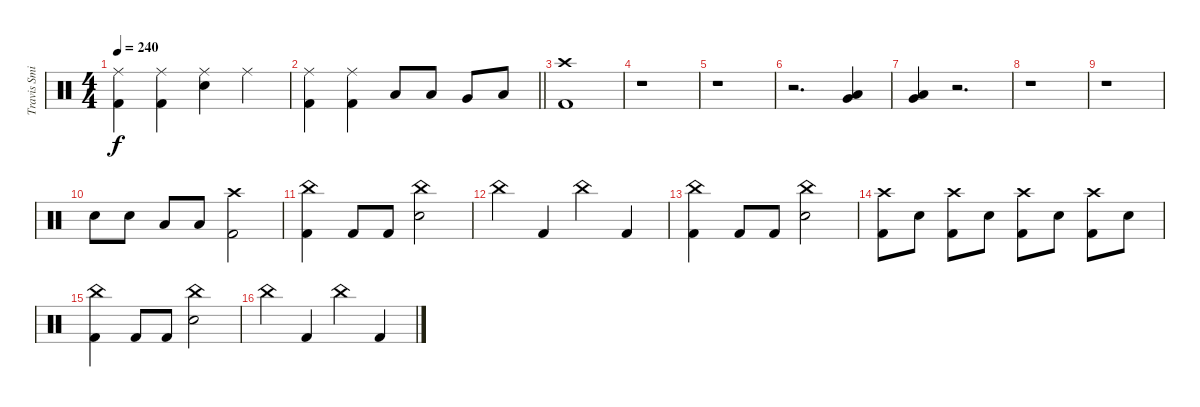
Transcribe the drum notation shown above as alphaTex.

\track ("Travis Smith" "Travis Smi") {instrument percussion}
\staff {score}
\articulation defaults
\ts (4 4)
\tempo 240
\clef neutral
\ks c
("Kick (hit) 2" "Ride (middle)").4{dy f} ("Kick (hit) 2" "Ride (middle)").4 ("Snare (hit) 2" "Ride (middle)").4 "Ride (middle)".4 |
\barLineRight lightlight
("Kick (hit) 2" "Ride (middle)").4 ("Kick (hit) 2" "Ride (middle)").4 "Low Tom (hit)".8 "Low Tom (hit)".8 "Very Low Tom (hit)".8 "Low Floor Tom (hit)".8 |
("Kick (hit) 2" "Crash high (hit)").1 |
r.1 |
r.1 |
r.2{d} ("Very Low Tom (hit)" "Low Floor Tom (hit)").4{bu 240} |
("Very Low Tom (hit)" "Low Floor Tom (hit)").4{bu 240} r.2{d} |
r.1 |
r.1 |
"Snare (hit) 2".8 "Snare (hit) 2".8 "Low Tom (hit)".8 "Low Tom (hit)".8 ("Kick (hit) 2" "Crash high (hit)").2 |
("Kick (hit) 2" "China (hit)").4 "Kick (hit) 2".8 "Kick (hit) 2".8 ("Snare (hit) 2" "China (hit)").2 |
"China (hit)".4 "Kick (hit) 2".4 "China (hit)".4 "Kick (hit) 2".4 |
("Kick (hit) 2" "China (hit)").4 "Kick (hit) 2".8 "Kick (hit) 2".8 ("Snare (hit) 2" "China (hit)").2 |
("Kick (hit) 2" "Crash high (hit)").8 "Snare (hit) 2".8 ("Kick (hit) 2" "Crash high (hit)").8 "Snare (hit) 2".8 ("Kick (hit) 2" "Crash high (hit)").8 "Snare (hit) 2".8 ("Kick (hit) 2" "Crash high (hit)").8 "Snare (hit) 2".8 |
("Kick (hit) 2" "China (hit)").4 "Kick (hit) 2".8 "Kick (hit) 2".8 ("Snare (hit) 2" "China (hit)").2 |
"China (hit)".4 "Kick (hit) 2".4 "China (hit)".4 "Kick (hit) 2".4
